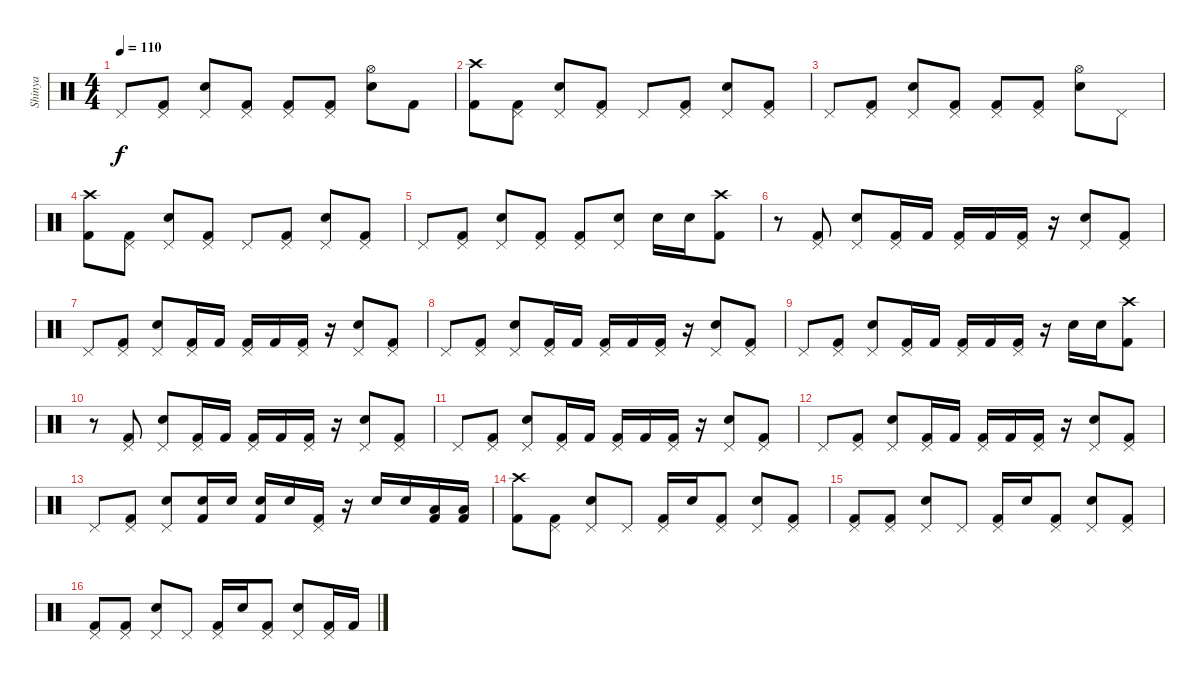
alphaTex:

\track ("Shinya" "Shinya") {instrument percussion}
\staff {score}
\articulation defaults
\ts (4 4)
\tempo 110
\clef neutral
\ks c "Pedal Hi-Hat (hit)".8{dy f}
("Pedal Hi-Hat (hit)" "Kick (hit) 2").8 ("Pedal Hi-Hat (hit)" "Electric Snare (hit)").8 ("Pedal Hi-Hat (hit)" "Kick (hit) 2").8 ("Pedal Hi-Hat (hit)" "Kick (hit) 2").8 ("Pedal Hi-Hat (hit)" "Kick (hit) 2").8 ("Hi-Hat (open)" "Electric Snare (hit)").8 "Kick (hit) 2".8 |
("Crash high (hit)" "Kick (hit) 2").8 ("Pedal Hi-Hat (hit)" "Kick (hit) 2").8 ("Pedal Hi-Hat (hit)" "Electric Snare (hit)").8 ("Pedal Hi-Hat (hit)" "Kick (hit) 2").8 "Pedal Hi-Hat (hit)".8 ("Pedal Hi-Hat (hit)" "Kick (hit) 2").8 ("Pedal Hi-Hat (hit)" "Electric Snare (hit)").8 ("Pedal Hi-Hat (hit)" "Kick (hit) 2").8 |
"Pedal Hi-Hat (hit)".8 ("Pedal Hi-Hat (hit)" "Kick (hit) 2").8 ("Pedal Hi-Hat (hit)" "Electric Snare (hit)").8 ("Pedal Hi-Hat (hit)" "Kick (hit) 2").8 ("Pedal Hi-Hat (hit)" "Kick (hit) 2").8 ("Pedal Hi-Hat (hit)" "Kick (hit) 2").8 ("Hi-Hat (open)" "Electric Snare (hit)").8 "Pedal Hi-Hat (hit)".8 |
("Crash high (hit)" "Kick (hit) 2").8 ("Pedal Hi-Hat (hit)" "Kick (hit) 2").8 ("Pedal Hi-Hat (hit)" "Electric Snare (hit)").8 ("Pedal Hi-Hat (hit)" "Kick (hit) 2").8 "Pedal Hi-Hat (hit)".8 ("Pedal Hi-Hat (hit)" "Kick (hit) 2").8 ("Pedal Hi-Hat (hit)" "Electric Snare (hit)").8 ("Pedal Hi-Hat (hit)" "Kick (hit) 2").8 |
"Pedal Hi-Hat (hit)".8 ("Pedal Hi-Hat (hit)" "Kick (hit) 2").8 ("Pedal Hi-Hat (hit)" "Electric Snare (hit)").8 ("Pedal Hi-Hat (hit)" "Kick (hit) 2").8 ("Pedal Hi-Hat (hit)" "Kick (hit) 2").8 ("Pedal Hi-Hat (hit)" "Electric Snare (hit)").8 "Electric Snare (hit)".16 "Electric Snare (hit)".16 ("Crash high (hit)" "Kick (hit) 2").8 |
r.8 ("Pedal Hi-Hat (hit)" "Kick (hit) 2").8 ("Pedal Hi-Hat (hit)" "Electric Snare (hit)").8 ("Pedal Hi-Hat (hit)" "Kick (hit) 2").16 "Kick (hit) 2".16 ("Pedal Hi-Hat (hit)" "Kick (hit) 2").16 "Kick (hit) 2".16 ("Pedal Hi-Hat (hit)" "Kick (hit) 2").16 r.16 ("Pedal Hi-Hat (hit)" "Electric Snare (hit)").8 ("Pedal Hi-Hat (hit)" "Kick (hit) 2").8 |
"Pedal Hi-Hat (hit)".8 ("Pedal Hi-Hat (hit)" "Kick (hit) 2").8 ("Pedal Hi-Hat (hit)" "Electric Snare (hit)").8 ("Pedal Hi-Hat (hit)" "Kick (hit) 2").16 "Kick (hit) 2".16 ("Pedal Hi-Hat (hit)" "Kick (hit) 2").16 "Kick (hit) 2".16 ("Pedal Hi-Hat (hit)" "Kick (hit) 2").16 r.16 ("Pedal Hi-Hat (hit)" "Electric Snare (hit)").8 ("Pedal Hi-Hat (hit)" "Kick (hit) 2").8 |
"Pedal Hi-Hat (hit)".8 ("Pedal Hi-Hat (hit)" "Kick (hit) 2").8 ("Pedal Hi-Hat (hit)" "Electric Snare (hit)").8 ("Pedal Hi-Hat (hit)" "Kick (hit) 2").16 "Kick (hit) 2".16 ("Pedal Hi-Hat (hit)" "Kick (hit) 2").16 "Kick (hit) 2".16 ("Pedal Hi-Hat (hit)" "Kick (hit) 2").16 r.16 ("Pedal Hi-Hat (hit)" "Electric Snare (hit)").8 ("Pedal Hi-Hat (hit)" "Kick (hit) 2").8 |
"Pedal Hi-Hat (hit)".8 ("Pedal Hi-Hat (hit)" "Kick (hit) 2").8 ("Pedal Hi-Hat (hit)" "Electric Snare (hit)").8 ("Pedal Hi-Hat (hit)" "Kick (hit) 2").16 "Kick (hit) 2".16 ("Pedal Hi-Hat (hit)" "Kick (hit) 2").16 "Kick (hit) 2".16 ("Pedal Hi-Hat (hit)" "Kick (hit) 2").16 r.16 "Electric Snare (hit)".16 "Electric Snare (hit)".16 ("Crash high (hit)" "Kick (hit) 2").8 |
r.8 ("Pedal Hi-Hat (hit)" "Kick (hit) 2").8 ("Pedal Hi-Hat (hit)" "Electric Snare (hit)").8 ("Pedal Hi-Hat (hit)" "Kick (hit) 2").16 "Kick (hit) 2".16 ("Pedal Hi-Hat (hit)" "Kick (hit) 2").16 "Kick (hit) 2".16 ("Pedal Hi-Hat (hit)" "Kick (hit) 2").16 r.16 ("Pedal Hi-Hat (hit)" "Electric Snare (hit)").8 ("Pedal Hi-Hat (hit)" "Kick (hit) 2").8 |
"Pedal Hi-Hat (hit)".8 ("Pedal Hi-Hat (hit)" "Kick (hit) 2").8 ("Pedal Hi-Hat (hit)" "Electric Snare (hit)").8 ("Pedal Hi-Hat (hit)" "Kick (hit) 2").16 "Kick (hit) 2".16 ("Pedal Hi-Hat (hit)" "Kick (hit) 2").16 "Kick (hit) 2".16 ("Pedal Hi-Hat (hit)" "Kick (hit) 2").16 r.16 ("Pedal Hi-Hat (hit)" "Electric Snare (hit)").8 ("Pedal Hi-Hat (hit)" "Kick (hit) 2").8 |
"Pedal Hi-Hat (hit)".8 ("Pedal Hi-Hat (hit)" "Kick (hit) 2").8 ("Pedal Hi-Hat (hit)" "Electric Snare (hit)").8 ("Pedal Hi-Hat (hit)" "Kick (hit) 2").16 "Kick (hit) 2".16 ("Pedal Hi-Hat (hit)" "Kick (hit) 2").16 "Kick (hit) 2".16 ("Pedal Hi-Hat (hit)" "Kick (hit) 2").16 r.16 ("Pedal Hi-Hat (hit)" "Electric Snare (hit)").8 ("Pedal Hi-Hat (hit)" "Kick (hit) 2").8 |
"Pedal Hi-Hat (hit)".8 ("Pedal Hi-Hat (hit)" "Kick (hit) 2").8 ("Pedal Hi-Hat (hit)" "Electric Snare (hit)").8 ("Electric Snare (hit)" "Kick (hit) 2").16 "Electric Snare (hit)".16 ("Electric Snare (hit)" "Kick (hit) 2").16 "Electric Snare (hit)".16 ("Pedal Hi-Hat (hit)" "Kick (hit) 2").16 r.16 "Electric Snare (hit)".16 "Electric Snare (hit)".16 ("Low Floor Tom (hit)" "Kick (hit) 2").16 ("Low Floor Tom (hit)" "Kick (hit) 2").16 |
("Crash high (hit)" "Kick (hit) 2").8 ("Pedal Hi-Hat (hit)" "Kick (hit) 2").8 ("Pedal Hi-Hat (hit)" "Electric Snare (hit)").8 "Pedal Hi-Hat (hit)".8 ("Pedal Hi-Hat (hit)" "Kick (hit) 2").16 "Electric Snare (hit)".16 ("Pedal Hi-Hat (hit)" "Kick (hit) 2").8 ("Pedal Hi-Hat (hit)" "Electric Snare (hit)").8 ("Pedal Hi-Hat (hit)" "Kick (hit) 2").8 |
("Pedal Hi-Hat (hit)" "Kick (hit) 2").8 ("Pedal Hi-Hat (hit)" "Kick (hit) 2").8 ("Pedal Hi-Hat (hit)" "Electric Snare (hit)").8 "Pedal Hi-Hat (hit)".8 ("Pedal Hi-Hat (hit)" "Kick (hit) 2").16 "Electric Snare (hit)".16 ("Pedal Hi-Hat (hit)" "Kick (hit) 2").8 ("Pedal Hi-Hat (hit)" "Electric Snare (hit)").8 ("Pedal Hi-Hat (hit)" "Kick (hit) 2").8 |
("Pedal Hi-Hat (hit)" "Kick (hit) 2").8 ("Pedal Hi-Hat (hit)" "Kick (hit) 2").8 ("Pedal Hi-Hat (hit)" "Electric Snare (hit)").8 "Pedal Hi-Hat (hit)".8 ("Pedal Hi-Hat (hit)" "Kick (hit) 2").16 "Electric Snare (hit)".16 ("Pedal Hi-Hat (hit)" "Kick (hit) 2").8 ("Pedal Hi-Hat (hit)" "Electric Snare (hit)").8 ("Pedal Hi-Hat (hit)" "Kick (hit) 2").16 "Kick (hit) 2".16
